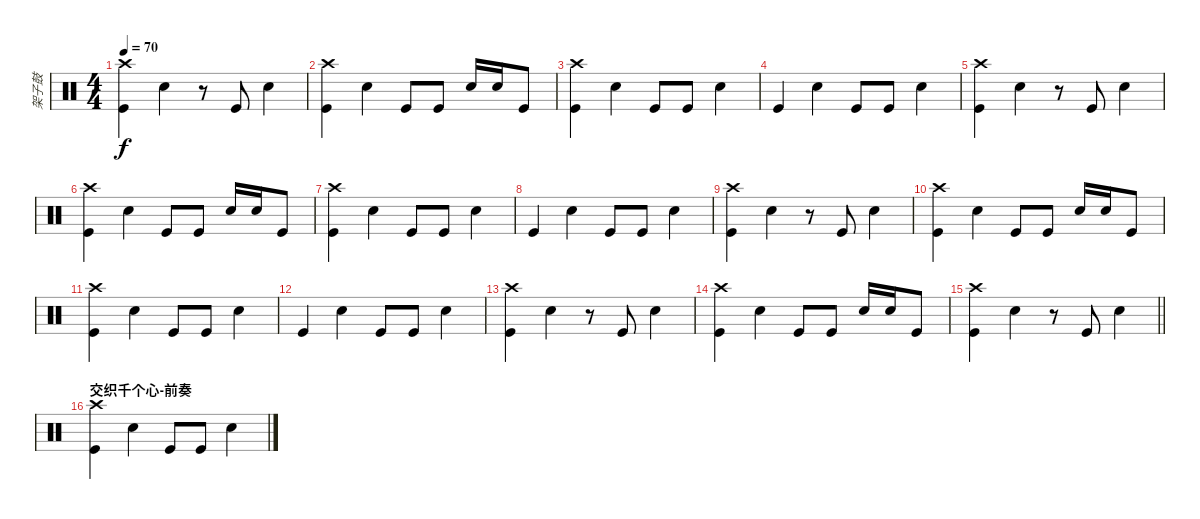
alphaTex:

\track ("架子鼓" "架子鼓") {instrument percussion}
\staff {score}
\articulation defaults
\ts (4 4)
\tempo 70
\clef neutral
\ks c
("Crash high (hit)" "Kick (hit)").4{dy f} "Electric Snare (hit)".4 r.8 "Kick (hit)".8 "Electric Snare (hit)".4 |
("Crash high (hit)" "Kick (hit)").4 "Electric Snare (hit)".4 "Kick (hit)".8 "Kick (hit)".8 "Electric Snare (hit)".16 "Electric Snare (hit)".16 "Kick (hit)".8 |
("Crash high (hit)" "Kick (hit)").4 "Electric Snare (hit)".4 "Kick (hit)".8 "Kick (hit)".8 "Electric Snare (hit)".4 |
"Kick (hit)".4 "Electric Snare (hit)".4 "Kick (hit)".8 "Kick (hit)".8 "Electric Snare (hit)".4 |
("Crash high (hit)" "Kick (hit)").4 "Electric Snare (hit)".4 r.8 "Kick (hit)".8 "Electric Snare (hit)".4 |
("Crash high (hit)" "Kick (hit)").4 "Electric Snare (hit)".4 "Kick (hit)".8 "Kick (hit)".8 "Electric Snare (hit)".16 "Electric Snare (hit)".16 "Kick (hit)".8 |
("Crash high (hit)" "Kick (hit)").4 "Electric Snare (hit)".4 "Kick (hit)".8 "Kick (hit)".8 "Electric Snare (hit)".4 |
"Kick (hit)".4 "Electric Snare (hit)".4 "Kick (hit)".8 "Kick (hit)".8 "Electric Snare (hit)".4 |
("Crash high (hit)" "Kick (hit)").4 "Electric Snare (hit)".4 r.8 "Kick (hit)".8 "Electric Snare (hit)".4 |
("Crash high (hit)" "Kick (hit)").4 "Electric Snare (hit)".4 "Kick (hit)".8 "Kick (hit)".8 "Electric Snare (hit)".16 "Electric Snare (hit)".16 "Kick (hit)".8 |
("Crash high (hit)" "Kick (hit)").4 "Electric Snare (hit)".4 "Kick (hit)".8 "Kick (hit)".8 "Electric Snare (hit)".4 |
"Kick (hit)".4 "Electric Snare (hit)".4 "Kick (hit)".8 "Kick (hit)".8 "Electric Snare (hit)".4 |
("Crash high (hit)" "Kick (hit)").4 "Electric Snare (hit)".4 r.8 "Kick (hit)".8 "Electric Snare (hit)".4 |
("Crash high (hit)" "Kick (hit)").4 "Electric Snare (hit)".4 "Kick (hit)".8 "Kick (hit)".8 "Electric Snare (hit)".16 "Electric Snare (hit)".16 "Kick (hit)".8 |
\barLineRight lightlight
("Crash high (hit)" "Kick (hit)").4 "Electric Snare (hit)".4 r.8 "Kick (hit)".8 "Electric Snare (hit)".4 |
\section ("" "交织千个心-前奏")
("Crash high (hit)" "Kick (hit)").4 "Electric Snare (hit)".4 "Kick (hit)".8 "Kick (hit)".8 "Electric Snare (hit)".4
